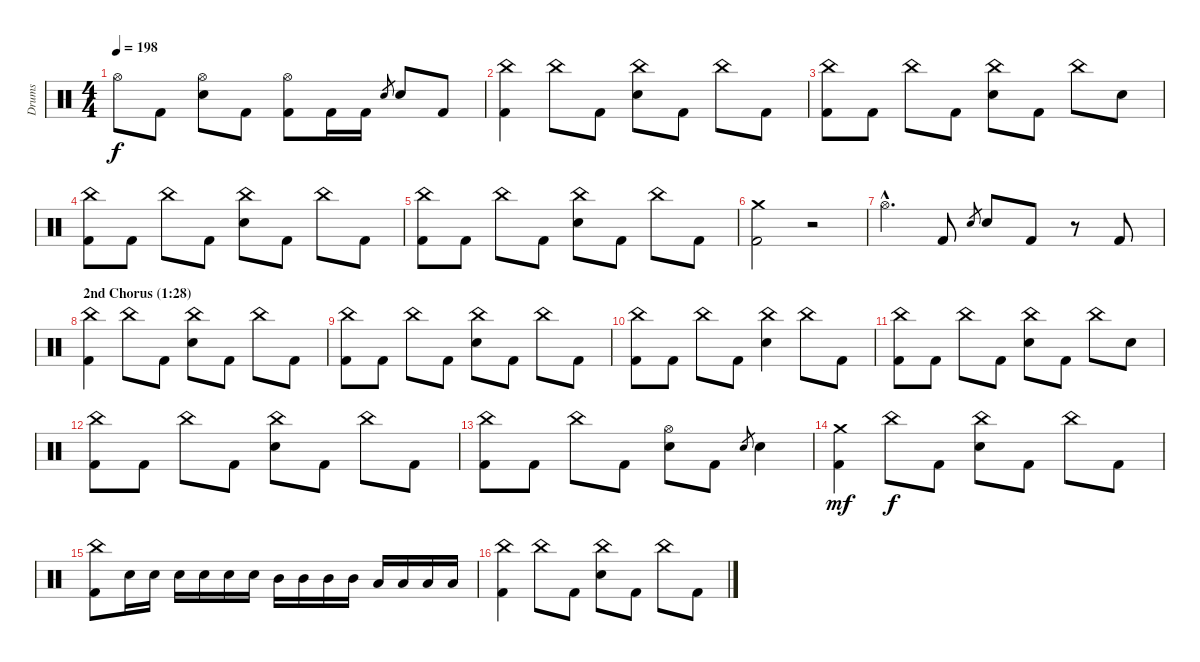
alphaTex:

\track ("Drums" "Drums") {instrument percussion}
\staff {score}
\articulation defaults
\ts (4 4)
\tempo 198
\clef neutral
\ks c "Hi-Hat (open)".8{dy f} "Kick (hit) 2".8
("Hi-Hat (open)" "Snare (hit) 2").8 "Kick (hit) 2".8 ("Hi-Hat (open)" "Kick (hit) 2").8 "Kick (hit) 2".16 "Kick (hit) 2".16 "Snare (hit) 2".8{gr} "Snare (hit) 2".8 "Kick (hit) 2".8 |
("China (hit)" "Kick (hit) 2").4 "China (hit)".8 "Kick (hit) 2".8 ("China (hit)" "Snare (hit) 2").8 "Kick (hit) 2".8 "China (hit)".8 "Kick (hit) 2".8 |
("China (hit)" "Kick (hit) 2").8 "Kick (hit) 2".8 "China (hit)".8 "Kick (hit) 2".8 ("China (hit)" "Snare (hit) 2").8 "Kick (hit) 2".8 "China (hit)".8 "Snare (hit) 2".8 |
("China (hit)" "Kick (hit) 2").8 "Kick (hit) 2".8 "China (hit)".8 "Kick (hit) 2".8 ("China (hit)" "Snare (hit) 2").8 "Kick (hit) 2".8 "China (hit)".8 "Kick (hit) 2".8 |
("China (hit)" "Kick (hit) 2").8 "Kick (hit) 2".8 "China (hit)".8 "Kick (hit) 2".8 ("China (hit)" "Snare (hit) 2").8 "Kick (hit) 2".8 "China (hit)".8 "Kick (hit) 2".8 |
("Crash medium (hit)" "Kick (hit) 2").2 r.2{volume 0} |
"Hi-Hat (open)"{hac}.4{d volume 16} "Kick (hit) 2".8 "Snare (hit) 2".8{gr} "Snare (hit) 2".8 "Kick (hit) 2".8 r.8 "Kick (hit) 2".8 |
\section ("" "2nd Chorus (1:28)")
("China (hit)" "Kick (hit) 2").4 "China (hit)".8 "Kick (hit) 2".8 ("China (hit)" "Snare (hit) 2").8 "Kick (hit) 2".8 "China (hit)".8 "Kick (hit) 2".8 |
("China (hit)" "Kick (hit) 2").8 "Kick (hit) 2".8 "China (hit)".8 "Kick (hit) 2".8 ("China (hit)" "Snare (hit) 2").8 "Kick (hit) 2".8 "China (hit)".8 "Kick (hit) 2".8 |
("China (hit)" "Kick (hit) 2").8 "Kick (hit) 2".8 "China (hit)".8 "Kick (hit) 2".8 ("China (hit)" "Snare (hit) 2").4 "China (hit)".8 "Kick (hit) 2".8 |
("China (hit)" "Kick (hit) 2").8 "Kick (hit) 2".8 "China (hit)".8 "Kick (hit) 2".8 ("China (hit)" "Snare (hit) 2").8 "Kick (hit) 2".8 "China (hit)".8 "Snare (hit) 2".8 |
("China (hit)" "Kick (hit) 2").8 "Kick (hit) 2".8 "China (hit)".8 "Kick (hit) 2".8 ("China (hit)" "Snare (hit) 2").8 "Kick (hit) 2".8 "China (hit)".8 "Kick (hit) 2".8 |
("China (hit)" "Kick (hit) 2").8 "Kick (hit) 2".8 "China (hit)".8 "Kick (hit) 2".8 ("Hi-Hat (open)" "Snare (hit) 2").8 "Kick (hit) 2".8 "Snare (hit) 2".8{gr} "Snare (hit) 2".4 |
("Crash medium (hit)" "Kick (hit) 2").4{dy mf} "China (hit)".8{dy f} "Kick (hit) 2".8 ("China (hit)" "Snare (hit) 2").8 "Kick (hit) 2".8 "China (hit)".8 "Kick (hit) 2".8 |
("China (hit)" "Kick (hit) 2").8 "Snare (hit) 2".16 "Snare (hit) 2".16 "Snare (hit) 2".16 "Snare (hit) 2".16 "Snare (hit) 2".16 "Snare (hit) 2".16 "Mid Tom (hit)".16 "Mid Tom (hit)".16 "Mid Tom (hit)".16 "Mid Tom (hit)".16 "Low Tom (hit)".16 "Low Tom (hit)".16 "Low Tom (hit)".16 "Low Tom (hit)".16 |
("China (hit)" "Kick (hit) 2").4 "China (hit)".8 "Kick (hit) 2".8 ("China (hit)" "Snare (hit) 2").8 "Kick (hit) 2".8 "China (hit)".8 "Kick (hit) 2".8
